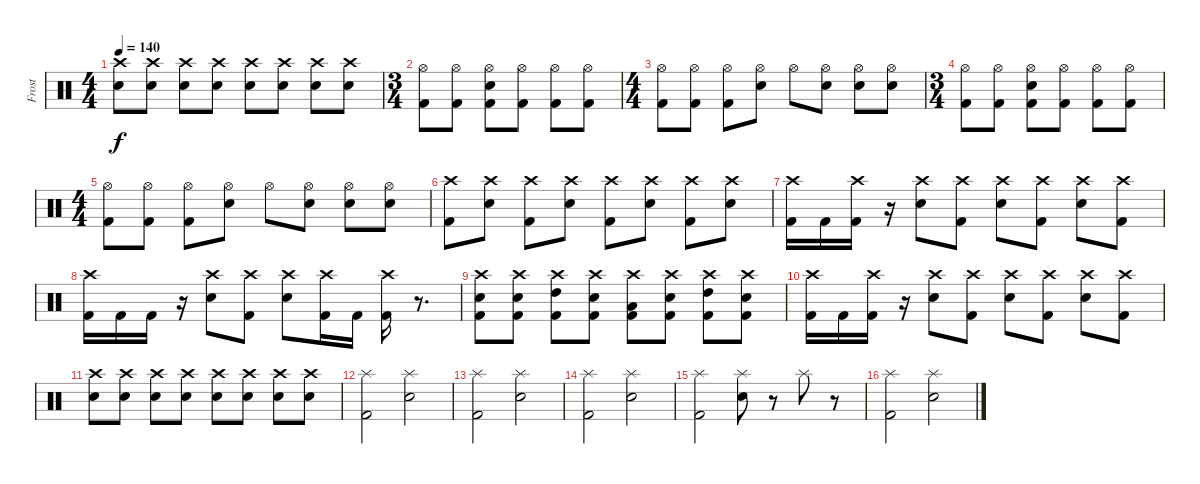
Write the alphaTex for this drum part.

\track ("Frost" "Frost") {instrument percussion}
\staff {score}
\articulation defaults
\ts (4 4)
\tempo 140
\clef neutral
\ks c
("Crash high (hit)" "Snare (hit) 2").8{dy f} ("Crash high (hit)" "Snare (hit) 2").8 ("Crash high (hit)" "Snare (hit) 2").8 ("Crash high (hit)" "Snare (hit) 2").8 ("Crash high (hit)" "Snare (hit) 2").8 ("Crash high (hit)" "Snare (hit) 2").8 ("Crash high (hit)" "Snare (hit) 2").8 ("Crash high (hit)" "Snare (hit) 2").8 |
\ts (3 4)
("Hi-Hat (open)" "Kick (hit) 2").8 ("Hi-Hat (open)" "Kick (hit) 2").8 ("Hi-Hat (open)" "Kick (hit) 2" "Snare (hit) 2").8 ("Hi-Hat (open)" "Kick (hit) 2").8 ("Hi-Hat (open)" "Kick (hit) 2").8 ("Hi-Hat (open)" "Kick (hit) 2").8 |
\ts (4 4)
("Hi-Hat (open)" "Kick (hit) 2").8 ("Hi-Hat (open)" "Kick (hit) 2").8 ("Hi-Hat (open)" "Kick (hit) 2").8 ("Hi-Hat (open)" "Snare (hit) 2").8 "Hi-Hat (open)".8 ("Hi-Hat (open)" "Snare (hit) 2").8 ("Hi-Hat (open)" "Snare (hit) 2").8 ("Hi-Hat (open)" "Snare (hit) 2").8 |
\ts (3 4)
("Hi-Hat (open)" "Kick (hit) 2").8 ("Hi-Hat (open)" "Kick (hit) 2").8 ("Hi-Hat (open)" "Kick (hit) 2" "Snare (hit) 2").8 ("Hi-Hat (open)" "Kick (hit) 2").8 ("Hi-Hat (open)" "Kick (hit) 2").8 ("Hi-Hat (open)" "Kick (hit) 2").8 |
\ts (4 4)
("Hi-Hat (open)" "Kick (hit) 2").8 ("Hi-Hat (open)" "Kick (hit) 2").8 ("Hi-Hat (open)" "Kick (hit) 2").8 ("Hi-Hat (open)" "Snare (hit) 2").8 "Hi-Hat (open)".8 ("Hi-Hat (open)" "Snare (hit) 2").8 ("Hi-Hat (open)" "Snare (hit) 2").8 ("Hi-Hat (open)" "Snare (hit) 2").8 |
("Crash high (hit)" "Kick (hit) 2").8 ("Crash high (hit)" "Snare (hit) 2").8 ("Crash high (hit)" "Kick (hit) 2").8 ("Crash high (hit)" "Snare (hit) 2").8 ("Crash high (hit)" "Kick (hit) 2").8 ("Crash high (hit)" "Snare (hit) 2").8 ("Crash high (hit)" "Kick (hit) 2").8 ("Crash high (hit)" "Snare (hit) 2").8 |
("Crash high (hit)" "Kick (hit) 2").16 "Kick (hit) 2".16 ("Crash high (hit)" "Kick (hit) 2").16 r.16 ("Crash high (hit)" "Snare (hit) 2").8 ("Crash high (hit)" "Kick (hit) 2").8 ("Crash high (hit)" "Snare (hit) 2").8 ("Crash high (hit)" "Kick (hit) 2").8 ("Crash high (hit)" "Snare (hit) 2").8 ("Crash high (hit)" "Kick (hit) 2").8 |
("Crash high (hit)" "Kick (hit) 2").16 "Kick (hit) 2".16 "Kick (hit) 2".16 r.16 ("Crash high (hit)" "Snare (hit) 2").8 ("Crash high (hit)" "Kick (hit) 2").8 ("Crash high (hit)" "Snare (hit) 2").8 ("Crash high (hit)" "Kick (hit) 2").16 "Kick (hit) 2".16 ("Crash high (hit)" "Kick (hit) 2").16 r.8{d} |
("Crash high (hit)" "Snare (hit) 2" "Kick (hit) 2").8 ("Crash high (hit)" "Snare (hit) 2" "Kick (hit) 2").8 ("Crash high (hit)" "High Tom (hit)" "Kick (hit) 2").8 ("Crash high (hit)" "Snare (hit) 2" "Kick (hit) 2").8 ("Crash high (hit)" "Low Tom (hit)" "Kick (hit) 2").8 ("Crash high (hit)" "Snare (hit) 2" "Kick (hit) 2").8 ("Crash high (hit)" "High Tom (hit)" "Kick (hit) 2").8 ("Crash high (hit)" "Snare (hit) 2" "Kick (hit) 2").8 |
("Crash high (hit)" "Kick (hit) 2").16 "Kick (hit) 2".16 ("Crash high (hit)" "Kick (hit) 2").16 r.16 ("Crash high (hit)" "Snare (hit) 2").8 ("Crash high (hit)" "Kick (hit) 2").8 ("Crash high (hit)" "Snare (hit) 2").8 ("Crash high (hit)" "Kick (hit) 2").8 ("Crash high (hit)" "Snare (hit) 2").8 ("Crash high (hit)" "Kick (hit) 2").8 |
("Crash high (hit)" "Snare (hit) 2").8 ("Crash high (hit)" "Snare (hit) 2").8 ("Crash high (hit)" "Snare (hit) 2").8 ("Crash high (hit)" "Snare (hit) 2").8 ("Crash high (hit)" "Snare (hit) 2").8 ("Crash high (hit)" "Snare (hit) 2").8 ("Crash high (hit)" "Snare (hit) 2").8 ("Crash high (hit)" "Snare (hit) 2").8 |
("Splash (hit)" "Kick (hit) 2").2 ("Splash (hit)" "Snare (hit) 2").2 |
("Splash (hit)" "Kick (hit) 2").2 ("Splash (hit)" "Snare (hit) 2").2 |
("Splash (hit)" "Kick (hit) 2").2 ("Splash (hit)" "Snare (hit) 2").2 |
("Splash (hit)" "Kick (hit) 2").2 ("Splash (hit)" "Snare (hit) 2").8 r.8 "Splash (hit)".8 r.8 |
("Splash (hit)" "Kick (hit) 2").2 ("Splash (hit)" "Snare (hit) 2").2
